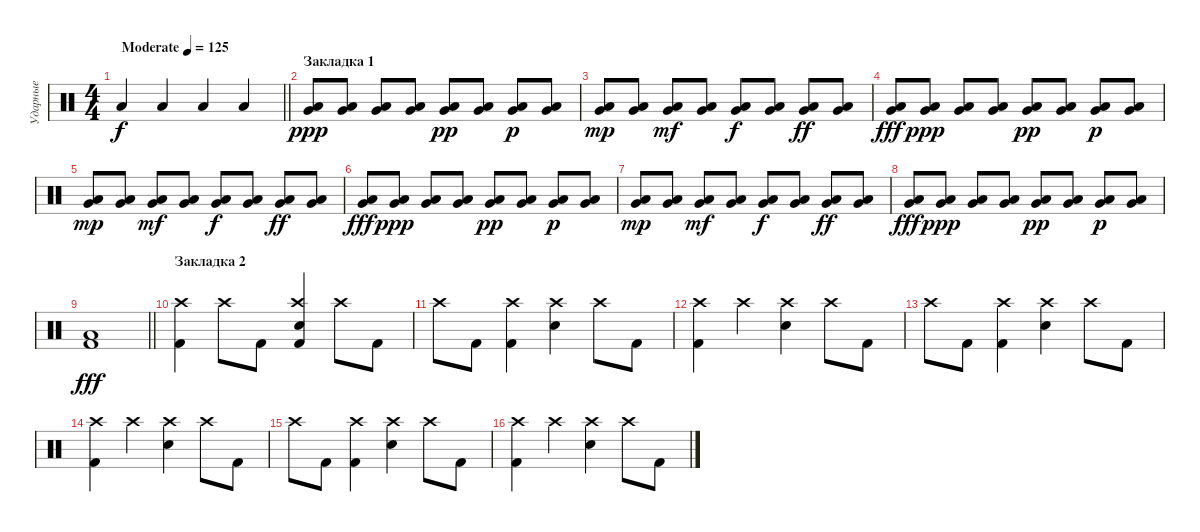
\track ("Ударные" "Ударные") {instrument percussion}
\staff {score}
\articulation defaults
\ts (4 4)
\tempo (125 "Moderate")
\clef neutral
\barLineRight lightlight
\ks c "Low Tom (hit)".4{dy f} "Low Tom (hit)".4 "Low Tom (hit)".4 "Low Tom (hit)".4
|
\section ("" "Закладка 1")
("Very Low Tom (hit)" "Low Tom (hit)").8{dy ppp} ("Very Low Tom (hit)" "Low Tom (hit)").8 ("Very Low Tom (hit)" "Low Tom (hit)").8 ("Very Low Tom (hit)" "Low Tom (hit)").8 ("Very Low Tom (hit)" "Low Tom (hit)").8{dy pp} ("Very Low Tom (hit)" "Low Tom (hit)").8 ("Very Low Tom (hit)" "Low Tom (hit)").8{dy p} ("Very Low Tom (hit)" "Low Tom (hit)").8 |
("Very Low Tom (hit)" "Low Tom (hit)").8{dy mp} ("Very Low Tom (hit)" "Low Tom (hit)").8 ("Very Low Tom (hit)" "Low Tom (hit)").8{dy mf} ("Very Low Tom (hit)" "Low Tom (hit)").8 ("Very Low Tom (hit)" "Low Tom (hit)").8{dy f} ("Very Low Tom (hit)" "Low Tom (hit)").8 ("Very Low Tom (hit)" "Low Tom (hit)").8{dy ff} ("Very Low Tom (hit)" "Low Tom (hit)").8 |
("Very Low Tom (hit)" "Low Tom (hit)").8{dy fff} ("Very Low Tom (hit)" "Low Tom (hit)").8{dy ppp} ("Very Low Tom (hit)" "Low Tom (hit)").8 ("Very Low Tom (hit)" "Low Tom (hit)").8 ("Very Low Tom (hit)" "Low Tom (hit)").8{dy pp} ("Very Low Tom (hit)" "Low Tom (hit)").8 ("Very Low Tom (hit)" "Low Tom (hit)").8{dy p} ("Very Low Tom (hit)" "Low Tom (hit)").8 |
("Very Low Tom (hit)" "Low Tom (hit)").8{dy mp} ("Very Low Tom (hit)" "Low Tom (hit)").8 ("Very Low Tom (hit)" "Low Tom (hit)").8{dy mf} ("Very Low Tom (hit)" "Low Tom (hit)").8 ("Very Low Tom (hit)" "Low Tom (hit)").8{dy f} ("Very Low Tom (hit)" "Low Tom (hit)").8 ("Very Low Tom (hit)" "Low Tom (hit)").8{dy ff} ("Very Low Tom (hit)" "Low Tom (hit)").8 |
("Very Low Tom (hit)" "Low Tom (hit)").8{dy fff} ("Very Low Tom (hit)" "Low Tom (hit)").8{dy ppp} ("Very Low Tom (hit)" "Low Tom (hit)").8 ("Very Low Tom (hit)" "Low Tom (hit)").8 ("Very Low Tom (hit)" "Low Tom (hit)").8{dy pp} ("Very Low Tom (hit)" "Low Tom (hit)").8 ("Very Low Tom (hit)" "Low Tom (hit)").8{dy p} ("Very Low Tom (hit)" "Low Tom (hit)").8 |
("Very Low Tom (hit)" "Low Tom (hit)").8{dy mp} ("Very Low Tom (hit)" "Low Tom (hit)").8 ("Very Low Tom (hit)" "Low Tom (hit)").8{dy mf} ("Very Low Tom (hit)" "Low Tom (hit)").8 ("Very Low Tom (hit)" "Low Tom (hit)").8{dy f} ("Very Low Tom (hit)" "Low Tom (hit)").8 ("Very Low Tom (hit)" "Low Tom (hit)").8{dy ff} ("Very Low Tom (hit)" "Low Tom (hit)").8 |
("Very Low Tom (hit)" "Low Tom (hit)").8{dy fff} ("Very Low Tom (hit)" "Low Tom (hit)").8{dy ppp} ("Very Low Tom (hit)" "Low Tom (hit)").8 ("Very Low Tom (hit)" "Low Tom (hit)").8 ("Very Low Tom (hit)" "Low Tom (hit)").8{dy pp} ("Very Low Tom (hit)" "Low Tom (hit)").8 ("Very Low Tom (hit)" "Low Tom (hit)").8{dy p} ("Very Low Tom (hit)" "Low Tom (hit)").8 |
\barLineRight lightlight
("Kick (hit) 2" "Low Tom (hit)").1{dy fff} |
\section ("" "Закладка 2")
("Crash high (hit)" "Kick (hit) 2").4 "Crash high (hit)".8 "Kick (hit) 2".8 ("Crash high (hit)" "Snare (hit) 2" "Kick (hit) 2").4 "Crash high (hit)".8 "Kick (hit) 2".8 |
"Crash high (hit)".8 "Kick (hit) 2".8 ("Crash high (hit)" "Kick (hit) 2").4 ("Crash high (hit)" "Snare (hit) 2").4 "Crash high (hit)".8 "Kick (hit) 2".8 |
("Crash high (hit)" "Kick (hit) 2").4 "Crash high (hit)".4 ("Crash high (hit)" "Snare (hit) 2").4 "Crash high (hit)".8 "Kick (hit) 2".8 |
"Crash high (hit)".8 "Kick (hit) 2".8 ("Crash high (hit)" "Kick (hit) 2").4 ("Crash high (hit)" "Snare (hit) 2").4 "Crash high (hit)".8 "Kick (hit) 2".8 |
("Crash high (hit)" "Kick (hit) 2").4 "Crash high (hit)".4 ("Crash high (hit)" "Snare (hit) 2").4 "Crash high (hit)".8 "Kick (hit) 2".8 |
"Crash high (hit)".8 "Kick (hit) 2".8 ("Crash high (hit)" "Kick (hit) 2").4 ("Crash high (hit)" "Snare (hit) 2").4 "Crash high (hit)".8 "Kick (hit) 2".8 |
("Crash high (hit)" "Kick (hit) 2").4 "Crash high (hit)".4 ("Crash high (hit)" "Snare (hit) 2").4 "Crash high (hit)".8 "Kick (hit) 2".8
